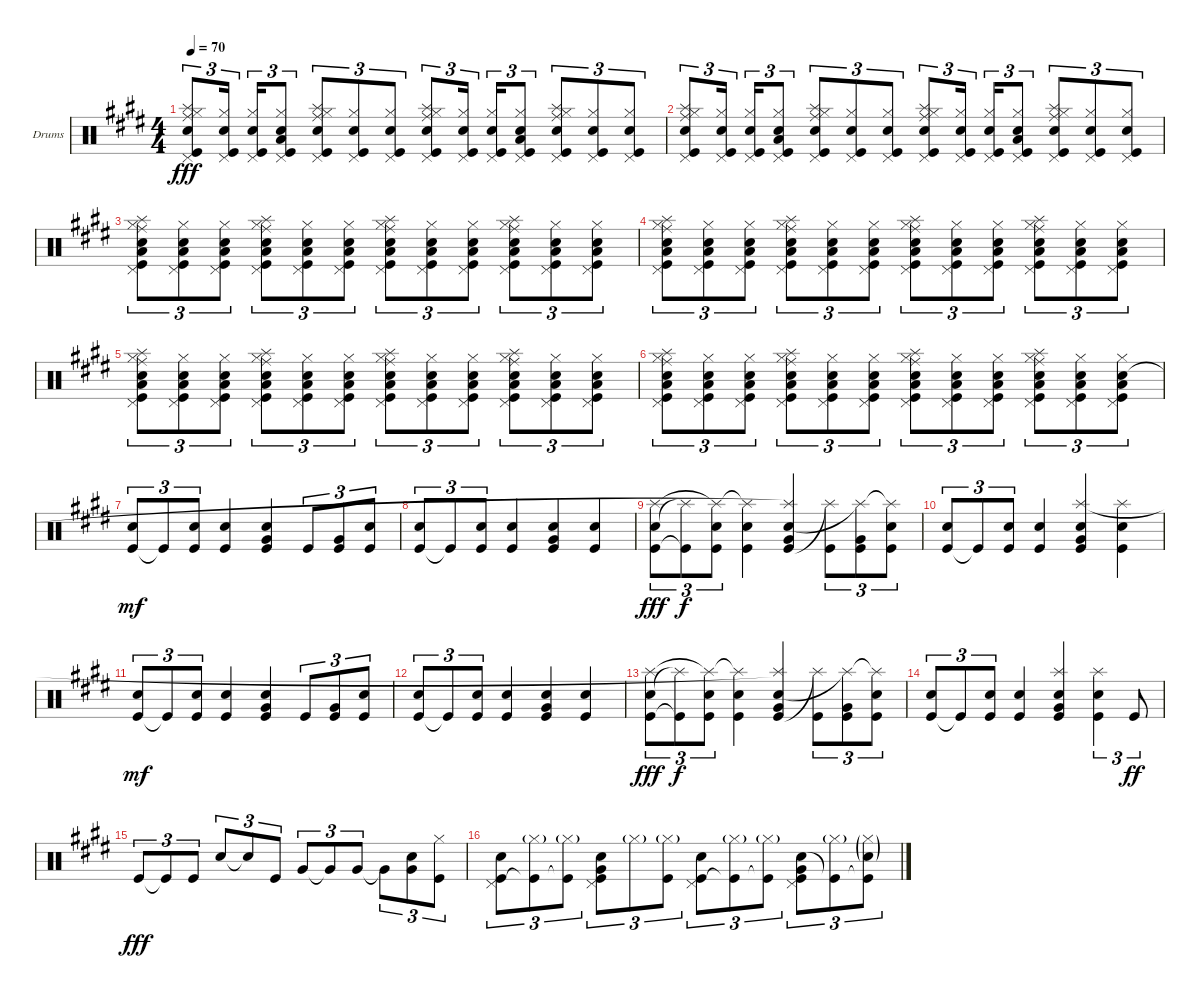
\defaultSystemsLayout 4
\bracketExtendMode groupsimilarinstruments
\firstSystemTrackNameOrientation horizontal
\otherSystemsTrackNameOrientation horizontal
\track ("Drumkit" "Drums") {instrument percussion}
\staff {score}
\articulation defaults
\ts (4 4)
\tempo 70
\clef neutral
\ks c#minor
("Ride (middle)" "Snare (hit) 2" "Kick (hit)" "Hi-Hat (closed)" "Splash (hit)" "Pedal Hi-Hat (hit)").8{tu (3 2) dy fff} ("Kick (hit)" "Hi-Hat (closed)" "Pedal Hi-Hat (hit)" "Snare (hit) 2").16{tu (3 2)} ("Kick (hit)" "Hi-Hat (closed)" "Pedal Hi-Hat (hit)" "Snare (hit) 2").16{tu (3 2)} ("Kick (hit)" "Low Tom (hit)" "Hi-Hat (closed)" "Pedal Hi-Hat (hit)" "Snare (hit) 2").8{tu (3 2)} ("Ride (middle)" "Snare (hit) 2" "Kick (hit)" "Hi-Hat (closed)" "Splash (hit)" "Pedal Hi-Hat (hit)").8{tu (3 2)} ("Kick (hit)" "Hi-Hat (closed)" "Pedal Hi-Hat (hit)" "Snare (hit) 2").8{tu (3 2)} ("Kick (hit)" "Hi-Hat (closed)" "Pedal Hi-Hat (hit)" "Snare (hit) 2").8{tu (3 2)} ("Ride (middle)" "Snare (hit) 2" "Kick (hit)" "Hi-Hat (closed)" "Splash (hit)" "Pedal Hi-Hat (hit)").8{tu (3 2)} ("Kick (hit)" "Hi-Hat (closed)" "Pedal Hi-Hat (hit)" "Snare (hit) 2").16{tu (3 2)} ("Kick (hit)" "Hi-Hat (closed)" "Pedal Hi-Hat (hit)" "Snare (hit) 2").16{tu (3 2)} ("Kick (hit)" "Low Tom (hit)" "Hi-Hat (closed)" "Pedal Hi-Hat (hit)" "Snare (hit) 2").8{tu (3 2)} ("Ride (middle)" "Snare (hit) 2" "Kick (hit)" "Hi-Hat (closed)" "Splash (hit)" "Pedal Hi-Hat (hit)").8{tu (3 2)} ("Kick (hit)" "Hi-Hat (closed)" "Pedal Hi-Hat (hit)" "Snare (hit) 2").8{tu (3 2)} ("Kick (hit)" "Hi-Hat (closed)" "Pedal Hi-Hat (hit)" "Snare (hit) 2").8{tu (3 2)} |
("Ride (middle)" "Snare (hit) 2" "Kick (hit)" "Hi-Hat (closed)" "Splash (hit)" "Pedal Hi-Hat (hit)").8{tu (3 2)} ("Kick (hit)" "Hi-Hat (closed)" "Pedal Hi-Hat (hit)" "Snare (hit) 2").16{tu (3 2)} ("Kick (hit)" "Hi-Hat (closed)" "Pedal Hi-Hat (hit)" "Snare (hit) 2").16{tu (3 2)} ("Kick (hit)" "Low Tom (hit)" "Hi-Hat (closed)" "Pedal Hi-Hat (hit)" "Snare (hit) 2").8{tu (3 2)} ("Ride (middle)" "Snare (hit) 2" "Kick (hit)" "Hi-Hat (closed)" "Splash (hit)" "Pedal Hi-Hat (hit)").8{tu (3 2)} ("Kick (hit)" "Hi-Hat (closed)" "Pedal Hi-Hat (hit)" "Snare (hit) 2").8{tu (3 2)} ("Kick (hit)" "Hi-Hat (closed)" "Pedal Hi-Hat (hit)" "Snare (hit) 2").8{tu (3 2)} ("Ride (middle)" "Snare (hit) 2" "Kick (hit)" "Hi-Hat (closed)" "Splash (hit)" "Pedal Hi-Hat (hit)").8{tu (3 2)} ("Kick (hit)" "Hi-Hat (closed)" "Pedal Hi-Hat (hit)" "Snare (hit) 2").16{tu (3 2)} ("Kick (hit)" "Hi-Hat (closed)" "Pedal Hi-Hat (hit)" "Snare (hit) 2").16{tu (3 2)} ("Kick (hit)" "Low Tom (hit)" "Hi-Hat (closed)" "Pedal Hi-Hat (hit)" "Snare (hit) 2").8{tu (3 2)} ("Ride (middle)" "Snare (hit) 2" "Kick (hit)" "Hi-Hat (closed)" "Splash (hit)" "Pedal Hi-Hat (hit)").8{tu (3 2)} ("Kick (hit)" "Hi-Hat (closed)" "Pedal Hi-Hat (hit)" "Snare (hit) 2").8{tu (3 2)} ("Kick (hit)" "Hi-Hat (closed)" "Pedal Hi-Hat (hit)" "Snare (hit) 2").8{tu (3 2)} |
("Ride (middle)" "Snare (hit) 2" "Kick (hit)" "Hi-Hat (closed)" "Splash (hit)" "Pedal Hi-Hat (hit)" "Low Tom (hit)").8{tu (3 2)} ("Kick (hit)" "Hi-Hat (closed)" "Pedal Hi-Hat (hit)" "Snare (hit) 2" "Low Tom (hit)").8{tu (3 2)} ("Kick (hit)" "Hi-Hat (closed)" "Pedal Hi-Hat (hit)" "Snare (hit) 2" "Low Tom (hit)").8{tu (3 2)} ("Ride (middle)" "Snare (hit) 2" "Kick (hit)" "Hi-Hat (closed)" "Splash (hit)" "Pedal Hi-Hat (hit)" "Low Tom (hit)").8{tu (3 2)} ("Kick (hit)" "Hi-Hat (closed)" "Pedal Hi-Hat (hit)" "Snare (hit) 2" "Low Tom (hit)").8{tu (3 2)} ("Kick (hit)" "Hi-Hat (closed)" "Pedal Hi-Hat (hit)" "Snare (hit) 2" "Low Tom (hit)").8{tu (3 2)} ("Ride (middle)" "Snare (hit) 2" "Kick (hit)" "Hi-Hat (closed)" "Splash (hit)" "Pedal Hi-Hat (hit)" "Low Tom (hit)").8{tu (3 2)} ("Kick (hit)" "Hi-Hat (closed)" "Pedal Hi-Hat (hit)" "Snare (hit) 2" "Low Tom (hit)").8{tu (3 2)} ("Kick (hit)" "Hi-Hat (closed)" "Pedal Hi-Hat (hit)" "Snare (hit) 2" "Low Tom (hit)").8{tu (3 2)} ("Ride (middle)" "Snare (hit) 2" "Kick (hit)" "Hi-Hat (closed)" "Splash (hit)" "Pedal Hi-Hat (hit)" "Low Tom (hit)").8{tu (3 2)} ("Kick (hit)" "Hi-Hat (closed)" "Pedal Hi-Hat (hit)" "Snare (hit) 2" "Low Tom (hit)").8{tu (3 2)} ("Kick (hit)" "Hi-Hat (closed)" "Pedal Hi-Hat (hit)" "Snare (hit) 2" "Low Tom (hit)").8{tu (3 2)} |
("Ride (middle)" "Snare (hit) 2" "Kick (hit)" "Hi-Hat (closed)" "Splash (hit)" "Pedal Hi-Hat (hit)" "Low Tom (hit)").8{tu (3 2)} ("Kick (hit)" "Hi-Hat (closed)" "Pedal Hi-Hat (hit)" "Snare (hit) 2" "Low Tom (hit)").8{tu (3 2)} ("Kick (hit)" "Hi-Hat (closed)" "Pedal Hi-Hat (hit)" "Snare (hit) 2" "Low Tom (hit)").8{tu (3 2)} ("Ride (middle)" "Snare (hit) 2" "Kick (hit)" "Hi-Hat (closed)" "Splash (hit)" "Pedal Hi-Hat (hit)" "Low Tom (hit)").8{tu (3 2)} ("Kick (hit)" "Hi-Hat (closed)" "Pedal Hi-Hat (hit)" "Snare (hit) 2" "Low Tom (hit)").8{tu (3 2)} ("Kick (hit)" "Hi-Hat (closed)" "Pedal Hi-Hat (hit)" "Snare (hit) 2" "Low Tom (hit)").8{tu (3 2)} ("Ride (middle)" "Snare (hit) 2" "Kick (hit)" "Hi-Hat (closed)" "Splash (hit)" "Pedal Hi-Hat (hit)" "Low Tom (hit)").8{tu (3 2)} ("Kick (hit)" "Hi-Hat (closed)" "Pedal Hi-Hat (hit)" "Snare (hit) 2" "Low Tom (hit)").8{tu (3 2)} ("Kick (hit)" "Hi-Hat (closed)" "Pedal Hi-Hat (hit)" "Snare (hit) 2" "Low Tom (hit)").8{tu (3 2)} ("Ride (middle)" "Snare (hit) 2" "Kick (hit)" "Hi-Hat (closed)" "Splash (hit)" "Pedal Hi-Hat (hit)" "Low Tom (hit)").8{tu (3 2)} ("Kick (hit)" "Hi-Hat (closed)" "Pedal Hi-Hat (hit)" "Snare (hit) 2" "Low Tom (hit)").8{tu (3 2)} ("Kick (hit)" "Hi-Hat (closed)" "Pedal Hi-Hat (hit)" "Snare (hit) 2" "Low Tom (hit)").8{tu (3 2)} |
("Ride (middle)" "Snare (hit) 2" "Kick (hit)" "Hi-Hat (closed)" "Splash (hit)" "Pedal Hi-Hat (hit)" "Low Tom (hit)").8{tu (3 2)} ("Kick (hit)" "Hi-Hat (closed)" "Pedal Hi-Hat (hit)" "Snare (hit) 2" "Low Tom (hit)").8{tu (3 2)} ("Kick (hit)" "Hi-Hat (closed)" "Pedal Hi-Hat (hit)" "Snare (hit) 2" "Low Tom (hit)").8{tu (3 2)} ("Ride (middle)" "Snare (hit) 2" "Kick (hit)" "Hi-Hat (closed)" "Splash (hit)" "Pedal Hi-Hat (hit)" "Low Tom (hit)").8{tu (3 2)} ("Kick (hit)" "Hi-Hat (closed)" "Pedal Hi-Hat (hit)" "Snare (hit) 2" "Low Tom (hit)").8{tu (3 2)} ("Kick (hit)" "Hi-Hat (closed)" "Pedal Hi-Hat (hit)" "Snare (hit) 2" "Low Tom (hit)").8{tu (3 2)} ("Ride (middle)" "Snare (hit) 2" "Kick (hit)" "Hi-Hat (closed)" "Splash (hit)" "Pedal Hi-Hat (hit)" "Low Tom (hit)").8{tu (3 2)} ("Kick (hit)" "Hi-Hat (closed)" "Pedal Hi-Hat (hit)" "Snare (hit) 2" "Low Tom (hit)").8{tu (3 2)} ("Kick (hit)" "Hi-Hat (closed)" "Pedal Hi-Hat (hit)" "Snare (hit) 2" "Low Tom (hit)").8{tu (3 2)} ("Ride (middle)" "Snare (hit) 2" "Kick (hit)" "Hi-Hat (closed)" "Splash (hit)" "Pedal Hi-Hat (hit)" "Low Tom (hit)").8{tu (3 2)} ("Kick (hit)" "Hi-Hat (closed)" "Pedal Hi-Hat (hit)" "Snare (hit) 2" "Low Tom (hit)").8{tu (3 2)} ("Kick (hit)" "Hi-Hat (closed)" "Pedal Hi-Hat (hit)" "Snare (hit) 2" "Low Tom (hit)").8{tu (3 2)} |
("Ride (middle)" "Snare (hit) 2" "Kick (hit)" "Hi-Hat (closed)" "Splash (hit)" "Pedal Hi-Hat (hit)" "Low Tom (hit)").8{tu (3 2)} ("Kick (hit)" "Hi-Hat (closed)" "Pedal Hi-Hat (hit)" "Snare (hit) 2" "Low Tom (hit)").8{tu (3 2)} ("Kick (hit)" "Hi-Hat (closed)" "Pedal Hi-Hat (hit)" "Snare (hit) 2" "Low Tom (hit)").8{tu (3 2)} ("Ride (middle)" "Snare (hit) 2" "Kick (hit)" "Hi-Hat (closed)" "Splash (hit)" "Pedal Hi-Hat (hit)" "Low Tom (hit)").8{tu (3 2)} ("Kick (hit)" "Hi-Hat (closed)" "Pedal Hi-Hat (hit)" "Snare (hit) 2" "Low Tom (hit)").8{tu (3 2)} ("Kick (hit)" "Hi-Hat (closed)" "Pedal Hi-Hat (hit)" "Snare (hit) 2" "Low Tom (hit)").8{tu (3 2)} ("Ride (middle)" "Snare (hit) 2" "Kick (hit)" "Hi-Hat (closed)" "Splash (hit)" "Pedal Hi-Hat (hit)" "Low Tom (hit)").8{tu (3 2)} ("Kick (hit)" "Hi-Hat (closed)" "Pedal Hi-Hat (hit)" "Snare (hit) 2" "Low Tom (hit)").8{tu (3 2)} ("Kick (hit)" "Hi-Hat (closed)" "Pedal Hi-Hat (hit)" "Snare (hit) 2" "Low Tom (hit)").8{tu (3 2)} ("Ride (middle)" "Snare (hit) 2" "Kick (hit)" "Hi-Hat (closed)" "Splash (hit)" "Pedal Hi-Hat (hit)" "Low Tom (hit)").8{tu (3 2)} ("Kick (hit)" "Hi-Hat (closed)" "Pedal Hi-Hat (hit)" "Snare (hit) 2" "Low Tom (hit)").8{tu (3 2)} ("Kick (hit)" "Hi-Hat (closed)" "Pedal Hi-Hat (hit)" "Snare (hit) 2" "Low Tom (hit)").8{tu (3 2)} |
("Kick (hit)" "Snare (hit) 2").8{tu (3 2) dy mf} "Kick (hit)"{t}.8{tu (3 2)} ("Kick (hit)" "Snare (hit) 2").8{tu (3 2)} ("Kick (hit)" "Snare (hit) 2").4 ("Very Low Tom (hit)" "Kick (hit)" "Snare (hit) 2").4 "Kick (hit)".8{tu (3 2)} ("Very Low Tom (hit)" "Kick (hit)").8{tu (3 2)} ("Snare (hit) 2" "Kick (hit)").8{tu (3 2)} |
("Kick (hit)" "Snare (hit) 2").8{tu (3 2)} "Kick (hit)"{t}.8{tu (3 2)} ("Kick (hit)" "Snare (hit) 2").8{tu (3 2)} ("Kick (hit)" "Snare (hit) 2").4 ("Very Low Tom (hit)" "Kick (hit)" "Snare (hit) 2").4 ("Snare (hit) 2" "Kick (hit)").4 |
("Kick (hit)" "Snare (hit) 2" "Splash (hit)").8{tu (3 2) dy fff} ("Kick (hit)"{t} "Splash (hit)"{t}).8{tu (3 2) dy f} ("Kick (hit)" "Snare (hit) 2" "Splash (hit)"{t}).8{tu (3 2)} ("Kick (hit)" "Snare (hit) 2" "Splash (hit)"{t}).4 ("Very Low Tom (hit)" "Kick (hit)" "Snare (hit) 2" "Splash (hit)"{t}).4 ("Kick (hit)" "Splash (hit)"{t}).8{tu (3 2)} ("Very Low Tom (hit)" "Kick (hit)" "Splash (hit)"{t}).8{tu (3 2)} ("Snare (hit) 2" "Kick (hit)" "Splash (hit)"{t}).8{tu (3 2)} |
("Kick (hit)" "Snare (hit) 2").8{tu (3 2)} "Kick (hit)"{t}.8{tu (3 2)} ("Kick (hit)" "Snare (hit) 2").8{tu (3 2)} ("Kick (hit)" "Snare (hit) 2").4 ("Very Low Tom (hit)" "Kick (hit)" "Snare (hit) 2" "Splash (hit)").4 ("Snare (hit) 2" "Kick (hit)" "Splash (hit)").4 |
("Kick (hit)" "Snare (hit) 2").8{tu (3 2) dy mf} "Kick (hit)"{t}.8{tu (3 2)} ("Kick (hit)" "Snare (hit) 2").8{tu (3 2)} ("Kick (hit)" "Snare (hit) 2").4 ("Very Low Tom (hit)" "Kick (hit)" "Snare (hit) 2").4 "Kick (hit)".8{tu (3 2)} ("Very Low Tom (hit)" "Kick (hit)").8{tu (3 2)} ("Snare (hit) 2" "Kick (hit)").8{tu (3 2)} |
("Kick (hit)" "Snare (hit) 2").8{tu (3 2)} "Kick (hit)"{t}.8{tu (3 2)} ("Kick (hit)" "Snare (hit) 2").8{tu (3 2)} ("Kick (hit)" "Snare (hit) 2").4 ("Very Low Tom (hit)" "Kick (hit)" "Snare (hit) 2").4 ("Snare (hit) 2" "Kick (hit)").4 |
("Kick (hit)" "Snare (hit) 2" "Splash (hit)").8{tu (3 2) dy fff} ("Kick (hit)"{t} "Splash (hit)"{t}).8{tu (3 2) dy f} ("Kick (hit)" "Snare (hit) 2" "Splash (hit)"{t}).8{tu (3 2)} ("Kick (hit)" "Snare (hit) 2" "Splash (hit)"{t}).4 ("Very Low Tom (hit)" "Kick (hit)" "Snare (hit) 2" "Splash (hit)"{t}).4 ("Kick (hit)" "Splash (hit)"{t}).8{tu (3 2)} ("Very Low Tom (hit)" "Kick (hit)" "Splash (hit)"{t}).8{tu (3 2)} ("Snare (hit) 2" "Kick (hit)" "Splash (hit)"{t}).8{tu (3 2)} |
("Kick (hit)" "Snare (hit) 2").8{tu (3 2)} "Kick (hit)"{t}.8{tu (3 2)} ("Kick (hit)" "Snare (hit) 2").8{tu (3 2)} ("Kick (hit)" "Snare (hit) 2").4 ("Very Low Tom (hit)" "Kick (hit)" "Snare (hit) 2" "Splash (hit)").4 ("Snare (hit) 2" "Kick (hit)" "Splash (hit)").4{tu (3 2)} "Kick (hit)".8{tu (3 2) dy ff} |
"Kick (hit)".8{tu (3 2) dy fff} "Kick (hit)"{t}.8{tu (3 2)} "Kick (hit)".8{tu (3 2)} "Snare (hit) 2".8{tu (3 2)} "Snare (hit) 2"{t}.8{tu (3 2)} "Kick (hit)".8{tu (3 2)} "Very Low Tom (hit)".8{tu (3 2)} "Very Low Tom (hit)"{t}.8{tu (3 2)} "Very Low Tom (hit)".8{tu (3 2)} "Very Low Tom (hit)"{t}.8{tu (3 2)} ("Snare (hit) 2" "Very Low Tom (hit)").8{tu (3 2)} ("Hi-Hat (closed)" "Kick (hit)").8{tu (3 2)} |
("Kick (hit)" "Pedal Hi-Hat (hit)" "Snare (hit) 2").8{tu (3 2)} ("Hi-Hat (closed)"{g} "Kick (hit)"{t}).8{tu (3 2)} ("Hi-Hat (closed)"{g} "Kick (hit)"{t}).8{tu (3 2)} ("Very Low Tom (hit)" "Kick (hit)" "Pedal Hi-Hat (hit)" "Snare (hit) 2").8{tu (3 2)} "Hi-Hat (closed)"{g}.8{tu (3 2)} ("Hi-Hat (closed)"{g} "Kick (hit)").8{tu (3 2)} ("Kick (hit)" "Pedal Hi-Hat (hit)" "Snare (hit) 2").8{tu (3 2)} ("Hi-Hat (closed)"{g} "Kick (hit)"{t}).8{tu (3 2)} ("Hi-Hat (closed)"{g} "Kick (hit)"{t}).8{tu (3 2)} ("Snare (hit) 2" "Kick (hit)" "Pedal Hi-Hat (hit)" "Very Low Tom (hit)").8{tu (3 2)} ("Kick (hit)"{t} "Hi-Hat (closed)"{g}).8{tu (3 2)} ("Kick (hit)"{t} "Hi-Hat (closed)"{g} "Snare (hit) 2"{g}).8{tu (3 2)}
